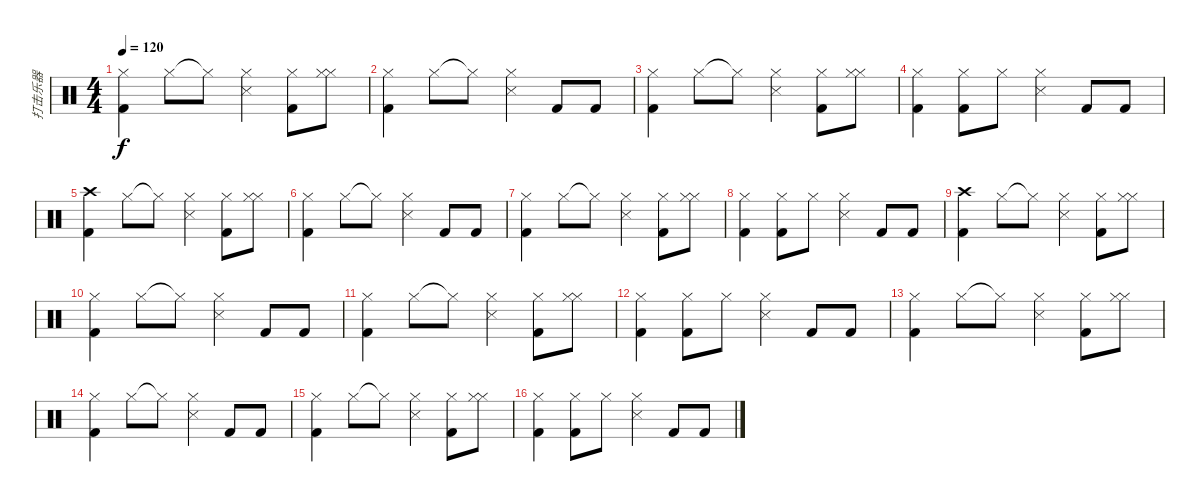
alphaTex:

\track ("打击乐器" "打击乐器") {instrument percussion}
\staff {score}
\articulation defaults
\ts (4 4)
\tempo 120
\clef neutral
\ks c
("Hi-Hat (closed)" "Kick (hit) 2").4{dy f} "Hi-Hat (closed)".8 "Hi-Hat (closed)"{t}.8 ("Snare (side stick) 3" "Hi-Hat (closed)").4 ("Hi-Hat (closed)" "Kick (hit) 2").8 ("Hi-Hat (closed)" "Hi-Hat (closed)").8 |
("Hi-Hat (closed)" "Kick (hit) 2").4 "Hi-Hat (closed)".8 "Hi-Hat (closed)"{t}.8 ("Snare (side stick) 3" "Hi-Hat (closed)").4 "Kick (hit) 2".8 "Kick (hit) 2".8 |
("Hi-Hat (closed)" "Kick (hit) 2").4 "Hi-Hat (closed)".8 "Hi-Hat (closed)"{t}.8 ("Snare (side stick) 3" "Hi-Hat (closed)").4 ("Hi-Hat (closed)" "Kick (hit) 2").8 ("Hi-Hat (closed)" "Hi-Hat (closed)").8 |
("Kick (hit) 2" "Hi-Hat (closed)").4 ("Kick (hit) 2" "Hi-Hat (closed)").8 "Hi-Hat (closed)".8 ("Snare (side stick) 3" "Hi-Hat (closed)").4 "Kick (hit) 2".8 "Kick (hit) 2".8 |
("Crash high (hit)" "Kick (hit) 2").4 "Hi-Hat (closed)".8 "Hi-Hat (closed)"{t}.8 ("Snare (side stick) 3" "Hi-Hat (closed)").4 ("Hi-Hat (closed)" "Kick (hit) 2").8 ("Hi-Hat (closed)" "Hi-Hat (closed)").8 |
("Hi-Hat (closed)" "Kick (hit) 2").4 "Hi-Hat (closed)".8 "Hi-Hat (closed)"{t}.8 ("Snare (side stick) 3" "Hi-Hat (closed)").4 "Kick (hit) 2".8 "Kick (hit) 2".8 |
("Hi-Hat (closed)" "Kick (hit) 2").4 "Hi-Hat (closed)".8 "Hi-Hat (closed)"{t}.8 ("Snare (side stick) 3" "Hi-Hat (closed)").4 ("Hi-Hat (closed)" "Kick (hit) 2").8 ("Hi-Hat (closed)" "Hi-Hat (closed)").8 |
("Kick (hit) 2" "Hi-Hat (closed)").4 ("Kick (hit) 2" "Hi-Hat (closed)").8 "Hi-Hat (closed)".8 ("Snare (side stick) 3" "Hi-Hat (closed)").4 "Kick (hit) 2".8 "Kick (hit) 2".8 |
("Crash high (hit)" "Kick (hit) 2").4 "Hi-Hat (closed)".8 "Hi-Hat (closed)"{t}.8 ("Snare (side stick) 3" "Hi-Hat (closed)").4 ("Hi-Hat (closed)" "Kick (hit) 2").8 ("Hi-Hat (closed)" "Hi-Hat (closed)").8 |
("Hi-Hat (closed)" "Kick (hit) 2").4 "Hi-Hat (closed)".8 "Hi-Hat (closed)"{t}.8 ("Snare (side stick) 3" "Hi-Hat (closed)").4 "Kick (hit) 2".8 "Kick (hit) 2".8 |
("Hi-Hat (closed)" "Kick (hit) 2").4 "Hi-Hat (closed)".8 "Hi-Hat (closed)"{t}.8 ("Snare (side stick) 3" "Hi-Hat (closed)").4 ("Hi-Hat (closed)" "Kick (hit) 2").8 ("Hi-Hat (closed)" "Hi-Hat (closed)").8 |
("Kick (hit) 2" "Hi-Hat (closed)").4 ("Kick (hit) 2" "Hi-Hat (closed)").8 "Hi-Hat (closed)".8 ("Snare (side stick) 3" "Hi-Hat (closed)").4 "Kick (hit) 2".8 "Kick (hit) 2".8 |
("Hi-Hat (closed)" "Kick (hit) 2").4 "Hi-Hat (closed)".8 "Hi-Hat (closed)"{t}.8 ("Snare (side stick) 3" "Hi-Hat (closed)").4 ("Hi-Hat (closed)" "Kick (hit) 2").8 ("Hi-Hat (closed)" "Hi-Hat (closed)").8 |
("Hi-Hat (closed)" "Kick (hit) 2").4 "Hi-Hat (closed)".8 "Hi-Hat (closed)"{t}.8 ("Snare (side stick) 3" "Hi-Hat (closed)").4 "Kick (hit) 2".8 "Kick (hit) 2".8 |
("Hi-Hat (closed)" "Kick (hit) 2").4 "Hi-Hat (closed)".8 "Hi-Hat (closed)"{t}.8 ("Snare (side stick) 3" "Hi-Hat (closed)").4 ("Hi-Hat (closed)" "Kick (hit) 2").8 ("Hi-Hat (closed)" "Hi-Hat (closed)").8 |
("Kick (hit) 2" "Hi-Hat (closed)").4 ("Kick (hit) 2" "Hi-Hat (closed)").8 "Hi-Hat (closed)".8 ("Snare (side stick) 3" "Hi-Hat (closed)").4 "Kick (hit) 2".8 "Kick (hit) 2".8
